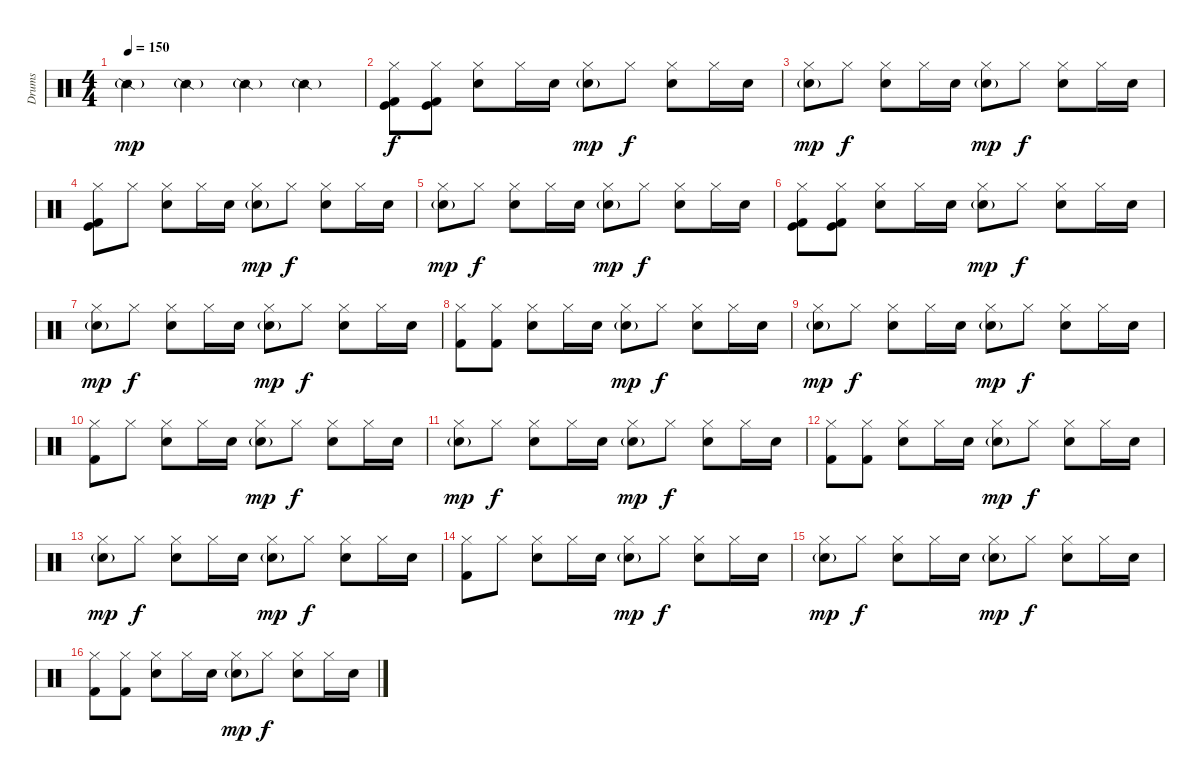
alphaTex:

\track ("Drums" "Drums") {instrument percussion}
\staff {score}
\articulation defaults
\ts (4 4)
\tempo 150
\clef neutral
\ks c "Snare (side stick) 2"{g}.4{dy mp} "Snare (side stick) 2"{g}.4 "Snare (side stick) 2"{g}.4 "Snare (side stick) 2"{g}.4
|
("Hi-Hat (closed)" "Kick (hit)" "Kick (hit) 2").8{dy f} ("Hi-Hat (closed)" "Kick (hit)" "Kick (hit) 2").8 ("Hi-Hat (closed)" "Snare (hit) 2").8 "Hi-Hat (closed)".16 "Snare (hit) 2".16 ("Hi-Hat (closed)" "Snare (hit) 2"{g}).8{dy mp} "Hi-Hat (closed)".8{dy f} ("Hi-Hat (closed)" "Snare (hit) 2").8 "Hi-Hat (closed)".16 "Snare (hit) 2".16 |
("Hi-Hat (closed)" "Snare (hit) 2"{g}).8{dy mp} "Hi-Hat (closed)".8{dy f} ("Hi-Hat (closed)" "Snare (hit) 2").8 "Hi-Hat (closed)".16 "Snare (hit) 2".16 ("Hi-Hat (closed)" "Snare (hit) 2"{g}).8{dy mp} "Hi-Hat (closed)".8{dy f} ("Hi-Hat (closed)" "Snare (hit) 2").8 "Hi-Hat (closed)".16 "Snare (hit) 2".16 |
("Hi-Hat (closed)" "Kick (hit)" "Kick (hit) 2").8 "Hi-Hat (closed)".8 ("Hi-Hat (closed)" "Snare (hit) 2").8 "Hi-Hat (closed)".16 "Snare (hit) 2".16 ("Hi-Hat (closed)" "Snare (hit) 2"{g}).8{dy mp} "Hi-Hat (closed)".8{dy f} ("Hi-Hat (closed)" "Snare (hit) 2").8 "Hi-Hat (closed)".16 "Snare (hit) 2".16 |
("Hi-Hat (closed)" "Snare (hit) 2"{g}).8{dy mp} "Hi-Hat (closed)".8{dy f} ("Hi-Hat (closed)" "Snare (hit) 2").8 "Hi-Hat (closed)".16 "Snare (hit) 2".16 ("Hi-Hat (closed)" "Snare (hit) 2"{g}).8{dy mp} "Hi-Hat (closed)".8{dy f} ("Hi-Hat (closed)" "Snare (hit) 2").8 "Hi-Hat (closed)".16 "Snare (hit) 2".16 |
("Hi-Hat (closed)" "Kick (hit)" "Kick (hit) 2").8 ("Hi-Hat (closed)" "Kick (hit)" "Kick (hit) 2").8 ("Hi-Hat (closed)" "Snare (hit) 2").8 "Hi-Hat (closed)".16 "Snare (hit) 2".16 ("Hi-Hat (closed)" "Snare (hit) 2"{g}).8{dy mp} "Hi-Hat (closed)".8{dy f} ("Hi-Hat (closed)" "Snare (hit) 2").8 "Hi-Hat (closed)".16 "Snare (hit) 2".16 |
("Hi-Hat (closed)" "Snare (hit) 2"{g}).8{dy mp} "Hi-Hat (closed)".8{dy f} ("Hi-Hat (closed)" "Snare (hit) 2").8 "Hi-Hat (closed)".16 "Snare (hit) 2".16 ("Hi-Hat (closed)" "Snare (hit) 2"{g}).8{dy mp} "Hi-Hat (closed)".8{dy f} ("Hi-Hat (closed)" "Snare (hit) 2").8 "Hi-Hat (closed)".16 "Snare (hit) 2".16 |
("Hi-Hat (closed)" "Kick (hit) 2").8 ("Hi-Hat (closed)" "Kick (hit) 2").8 ("Hi-Hat (closed)" "Snare (hit) 2").8 "Hi-Hat (closed)".16 "Snare (hit) 2".16 ("Hi-Hat (closed)" "Snare (hit) 2"{g}).8{dy mp} "Hi-Hat (closed)".8{dy f} ("Hi-Hat (closed)" "Snare (hit) 2").8 "Hi-Hat (closed)".16 "Snare (hit) 2".16 |
("Hi-Hat (closed)" "Snare (hit) 2"{g}).8{dy mp} "Hi-Hat (closed)".8{dy f} ("Hi-Hat (closed)" "Snare (hit) 2").8 "Hi-Hat (closed)".16 "Snare (hit) 2".16 ("Hi-Hat (closed)" "Snare (hit) 2"{g}).8{dy mp} "Hi-Hat (closed)".8{dy f} ("Hi-Hat (closed)" "Snare (hit) 2").8 "Hi-Hat (closed)".16 "Snare (hit) 2".16 |
("Hi-Hat (closed)" "Kick (hit) 2").8 "Hi-Hat (closed)".8 ("Hi-Hat (closed)" "Snare (hit) 2").8 "Hi-Hat (closed)".16 "Snare (hit) 2".16 ("Hi-Hat (closed)" "Snare (hit) 2"{g}).8{dy mp} "Hi-Hat (closed)".8{dy f} ("Hi-Hat (closed)" "Snare (hit) 2").8 "Hi-Hat (closed)".16 "Snare (hit) 2".16 |
("Hi-Hat (closed)" "Snare (hit) 2"{g}).8{dy mp} "Hi-Hat (closed)".8{dy f} ("Hi-Hat (closed)" "Snare (hit) 2").8 "Hi-Hat (closed)".16 "Snare (hit) 2".16 ("Hi-Hat (closed)" "Snare (hit) 2"{g}).8{dy mp} "Hi-Hat (closed)".8{dy f} ("Hi-Hat (closed)" "Snare (hit) 2").8 "Hi-Hat (closed)".16 "Snare (hit) 2".16 |
("Hi-Hat (closed)" "Kick (hit) 2").8 ("Hi-Hat (closed)" "Kick (hit) 2").8 ("Hi-Hat (closed)" "Snare (hit) 2").8 "Hi-Hat (closed)".16 "Snare (hit) 2".16 ("Hi-Hat (closed)" "Snare (hit) 2"{g}).8{dy mp} "Hi-Hat (closed)".8{dy f} ("Hi-Hat (closed)" "Snare (hit) 2").8 "Hi-Hat (closed)".16 "Snare (hit) 2".16 |
("Hi-Hat (closed)" "Snare (hit) 2"{g}).8{dy mp} "Hi-Hat (closed)".8{dy f} ("Hi-Hat (closed)" "Snare (hit) 2").8 "Hi-Hat (closed)".16 "Snare (hit) 2".16 ("Hi-Hat (closed)" "Snare (hit) 2"{g}).8{dy mp} "Hi-Hat (closed)".8{dy f} ("Hi-Hat (closed)" "Snare (hit) 2").8 "Hi-Hat (closed)".16 "Snare (hit) 2".16 |
("Hi-Hat (closed)" "Kick (hit) 2").8 "Hi-Hat (closed)".8 ("Hi-Hat (closed)" "Snare (hit) 2").8 "Hi-Hat (closed)".16 "Snare (hit) 2".16 ("Hi-Hat (closed)" "Snare (hit) 2"{g}).8{dy mp} "Hi-Hat (closed)".8{dy f} ("Hi-Hat (closed)" "Snare (hit) 2").8 "Hi-Hat (closed)".16 "Snare (hit) 2".16 |
("Hi-Hat (closed)" "Snare (hit) 2"{g}).8{dy mp} "Hi-Hat (closed)".8{dy f} ("Hi-Hat (closed)" "Snare (hit) 2").8 "Hi-Hat (closed)".16 "Snare (hit) 2".16 ("Hi-Hat (closed)" "Snare (hit) 2"{g}).8{dy mp} "Hi-Hat (closed)".8{dy f} ("Hi-Hat (closed)" "Snare (hit) 2").8 "Hi-Hat (closed)".16 "Snare (hit) 2".16 |
("Hi-Hat (closed)" "Kick (hit) 2").8 ("Hi-Hat (closed)" "Kick (hit) 2").8 ("Hi-Hat (closed)" "Snare (hit) 2").8 "Hi-Hat (closed)".16 "Snare (hit) 2".16 ("Hi-Hat (closed)" "Snare (hit) 2"{g}).8{dy mp} "Hi-Hat (closed)".8{dy f} ("Hi-Hat (closed)" "Snare (hit) 2").8 "Hi-Hat (closed)".16 "Snare (hit) 2".16
